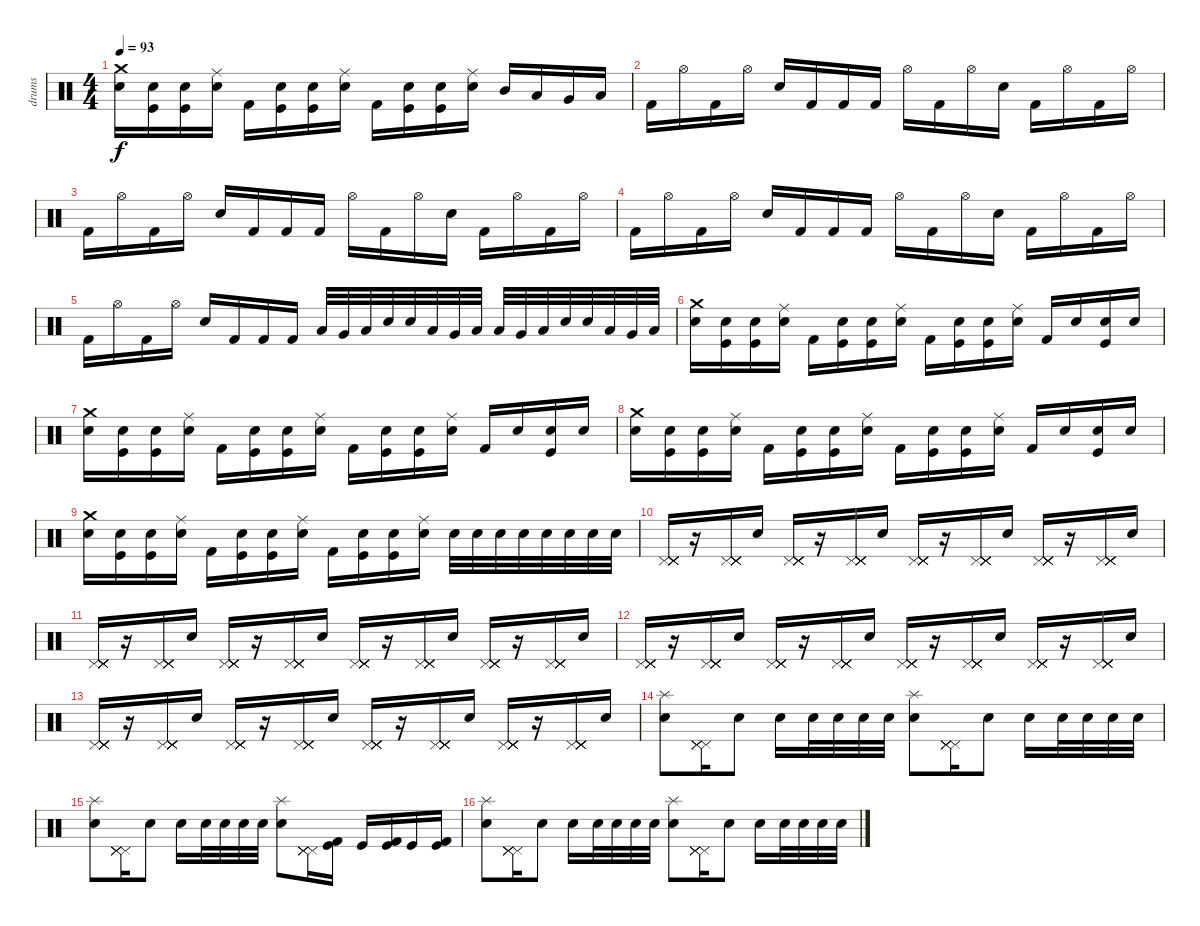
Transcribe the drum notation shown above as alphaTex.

\track ("drums" "drums") {instrument percussion}
\staff {score}
\articulation defaults
\ts (4 4)
\tempo 93
\clef neutral
\ks c
("Crash medium (hit)" "Electric Snare (hit)").16{dy f} ("Kick (hit)" "Snare (hit) 2").16 ("Kick (hit)" "Snare (hit) 2").16 ("Ride (middle)" "Electric Snare (hit)").16 "Kick (hit) 2".16 ("Kick (hit)" "Snare (hit) 2").16 ("Kick (hit)" "Snare (hit) 2").16 ("Ride (middle)" "Electric Snare (hit)").16 "Kick (hit) 2".16 ("Kick (hit)" "Snare (hit) 2").16 ("Kick (hit)" "Snare (hit) 2").16 ("Ride (middle)" "Electric Snare (hit)").16 "Mid Tom (hit)".16 "Low Tom (hit)".16 "Very Low Tom (hit)".16 "Low Floor Tom (hit)".16 |
"Kick (hit) 2".16 "Hi-Hat (open)".16 "Kick (hit) 2".16 "Hi-Hat (open)".16 "Electric Snare (hit)".16 "Kick (hit) 2".16 "Kick (hit) 2".16 "Kick (hit) 2".16 "Hi-Hat (open)".16 "Kick (hit) 2".16 "Hi-Hat (open)".16 "Electric Snare (hit)".16 "Kick (hit) 2".16 "Hi-Hat (open)".16 "Kick (hit) 2".16 "Hi-Hat (open)".16 |
"Kick (hit) 2".16 "Hi-Hat (open)".16 "Kick (hit) 2".16 "Hi-Hat (open)".16 "Electric Snare (hit)".16 "Kick (hit) 2".16 "Kick (hit) 2".16 "Kick (hit) 2".16 "Hi-Hat (open)".16 "Kick (hit) 2".16 "Hi-Hat (open)".16 "Electric Snare (hit)".16 "Kick (hit) 2".16 "Hi-Hat (open)".16 "Kick (hit) 2".16 "Hi-Hat (open)".16 |
"Kick (hit) 2".16 "Hi-Hat (open)".16 "Kick (hit) 2".16 "Hi-Hat (open)".16 "Electric Snare (hit)".16 "Kick (hit) 2".16 "Kick (hit) 2".16 "Kick (hit) 2".16 "Hi-Hat (open)".16 "Kick (hit) 2".16 "Hi-Hat (open)".16 "Electric Snare (hit)".16 "Kick (hit) 2".16 "Hi-Hat (open)".16 "Kick (hit) 2".16 "Hi-Hat (open)".16 |
"Kick (hit) 2".16 "Hi-Hat (open)".16 "Kick (hit) 2".16 "Hi-Hat (open)".16 "Electric Snare (hit)".16 "Kick (hit) 2".16 "Kick (hit) 2".16 "Kick (hit) 2".16 "Low Floor Tom (hit)".32 "Very Low Tom (hit)".32 "Low Tom (hit)".32 "Electric Snare (hit)".32 "Snare (hit) 2".32 "Low Tom (hit)".32 "Very Low Tom (hit)".32 "Low Floor Tom (hit)".32 "Low Floor Tom (hit)".32 "Very Low Tom (hit)".32 "Low Tom (hit)".32 "Electric Snare (hit)".32 "Snare (hit) 2".32 "Low Tom (hit)".32 "Very Low Tom (hit)".32 "Low Floor Tom (hit)".32 |
("Crash medium (hit)" "Electric Snare (hit)").16 ("Kick (hit)" "Snare (hit) 2").16 ("Kick (hit)" "Snare (hit) 2").16 ("Ride (middle)" "Electric Snare (hit)").16 "Kick (hit) 2".16 ("Kick (hit)" "Snare (hit) 2").16 ("Kick (hit)" "Snare (hit) 2").16 ("Ride (middle)" "Electric Snare (hit)").16 "Kick (hit) 2".16 ("Kick (hit)" "Snare (hit) 2").16 ("Kick (hit)" "Snare (hit) 2").16 ("Ride (middle)" "Electric Snare (hit)").16 "Kick (hit) 2".16 "Electric Snare (hit)".16 ("Snare (hit) 2" "Kick (hit)").16 "Electric Snare (hit)".16 |
("Crash medium (hit)" "Electric Snare (hit)").16 ("Kick (hit)" "Snare (hit) 2").16 ("Kick (hit)" "Snare (hit) 2").16 ("Ride (middle)" "Electric Snare (hit)").16 "Kick (hit) 2".16 ("Kick (hit)" "Snare (hit) 2").16 ("Kick (hit)" "Snare (hit) 2").16 ("Ride (middle)" "Electric Snare (hit)").16 "Kick (hit) 2".16 ("Kick (hit)" "Snare (hit) 2").16 ("Kick (hit)" "Snare (hit) 2").16 ("Ride (middle)" "Electric Snare (hit)").16 "Kick (hit) 2".16 "Electric Snare (hit)".16 ("Snare (hit) 2" "Kick (hit)").16 "Electric Snare (hit)".16 |
("Crash medium (hit)" "Electric Snare (hit)").16 ("Kick (hit)" "Snare (hit) 2").16 ("Kick (hit)" "Snare (hit) 2").16 ("Ride (middle)" "Electric Snare (hit)").16 "Kick (hit) 2".16 ("Kick (hit)" "Snare (hit) 2").16 ("Kick (hit)" "Snare (hit) 2").16 ("Ride (middle)" "Electric Snare (hit)").16 "Kick (hit) 2".16 ("Kick (hit)" "Snare (hit) 2").16 ("Kick (hit)" "Snare (hit) 2").16 ("Ride (middle)" "Electric Snare (hit)").16 "Kick (hit) 2".16 "Electric Snare (hit)".16 ("Snare (hit) 2" "Kick (hit)").16 "Electric Snare (hit)".16 |
("Crash medium (hit)" "Electric Snare (hit)").16 ("Kick (hit)" "Snare (hit) 2").16 ("Kick (hit)" "Snare (hit) 2").16 ("Ride (middle)" "Electric Snare (hit)").16 "Kick (hit) 2".16 ("Kick (hit)" "Snare (hit) 2").16 ("Kick (hit)" "Snare (hit) 2").16 ("Ride (middle)" "Electric Snare (hit)").16 "Kick (hit) 2".16 ("Kick (hit)" "Snare (hit) 2").16 ("Kick (hit)" "Snare (hit) 2").16 ("Ride (middle)" "Electric Snare (hit)").16 "Electric Snare (hit)".32 "Electric Snare (hit)".32 "Electric Snare (hit)".32 "Electric Snare (hit)".32 "Electric Snare (hit)".32 "Electric Snare (hit)".32 "Electric Snare (hit)".32 "Electric Snare (hit)".32 |
("Pedal Hi-Hat (hit)" "Pedal Hi-Hat (hit)" "Pedal Hi-Hat (hit)" "Pedal Hi-Hat (hit)" "Pedal Hi-Hat (hit)" "Pedal Hi-Hat (hit)").16 r.16 ("Pedal Hi-Hat (hit)" "Pedal Hi-Hat (hit)" "Pedal Hi-Hat (hit)" "Pedal Hi-Hat (hit)" "Pedal Hi-Hat (hit)" "Pedal Hi-Hat (hit)").16 "Electric Snare (hit)".16 ("Pedal Hi-Hat (hit)" "Pedal Hi-Hat (hit)" "Pedal Hi-Hat (hit)" "Pedal Hi-Hat (hit)" "Pedal Hi-Hat (hit)" "Pedal Hi-Hat (hit)").16 r.16 ("Pedal Hi-Hat (hit)" "Pedal Hi-Hat (hit)" "Pedal Hi-Hat (hit)" "Pedal Hi-Hat (hit)" "Pedal Hi-Hat (hit)" "Pedal Hi-Hat (hit)").16 "Electric Snare (hit)".16 ("Pedal Hi-Hat (hit)" "Pedal Hi-Hat (hit)" "Pedal Hi-Hat (hit)" "Pedal Hi-Hat (hit)" "Pedal Hi-Hat (hit)" "Pedal Hi-Hat (hit)").16 r.16 ("Pedal Hi-Hat (hit)" "Pedal Hi-Hat (hit)" "Pedal Hi-Hat (hit)" "Pedal Hi-Hat (hit)" "Pedal Hi-Hat (hit)" "Pedal Hi-Hat (hit)").16 "Electric Snare (hit)".16 ("Pedal Hi-Hat (hit)" "Pedal Hi-Hat (hit)" "Pedal Hi-Hat (hit)" "Pedal Hi-Hat (hit)" "Pedal Hi-Hat (hit)" "Pedal Hi-Hat (hit)").16 r.16 ("Pedal Hi-Hat (hit)" "Pedal Hi-Hat (hit)" "Pedal Hi-Hat (hit)" "Pedal Hi-Hat (hit)" "Pedal Hi-Hat (hit)" "Pedal Hi-Hat (hit)").16 "Electric Snare (hit)".16 |
("Pedal Hi-Hat (hit)" "Pedal Hi-Hat (hit)" "Pedal Hi-Hat (hit)" "Pedal Hi-Hat (hit)" "Pedal Hi-Hat (hit)" "Pedal Hi-Hat (hit)").16 r.16 ("Pedal Hi-Hat (hit)" "Pedal Hi-Hat (hit)" "Pedal Hi-Hat (hit)" "Pedal Hi-Hat (hit)" "Pedal Hi-Hat (hit)" "Pedal Hi-Hat (hit)").16 "Electric Snare (hit)".16 ("Pedal Hi-Hat (hit)" "Pedal Hi-Hat (hit)" "Pedal Hi-Hat (hit)" "Pedal Hi-Hat (hit)" "Pedal Hi-Hat (hit)" "Pedal Hi-Hat (hit)").16 r.16 ("Pedal Hi-Hat (hit)" "Pedal Hi-Hat (hit)" "Pedal Hi-Hat (hit)" "Pedal Hi-Hat (hit)" "Pedal Hi-Hat (hit)" "Pedal Hi-Hat (hit)").16 "Electric Snare (hit)".16 ("Pedal Hi-Hat (hit)" "Pedal Hi-Hat (hit)" "Pedal Hi-Hat (hit)" "Pedal Hi-Hat (hit)" "Pedal Hi-Hat (hit)" "Pedal Hi-Hat (hit)").16 r.16 ("Pedal Hi-Hat (hit)" "Pedal Hi-Hat (hit)" "Pedal Hi-Hat (hit)" "Pedal Hi-Hat (hit)" "Pedal Hi-Hat (hit)" "Pedal Hi-Hat (hit)").16 "Electric Snare (hit)".16 ("Pedal Hi-Hat (hit)" "Pedal Hi-Hat (hit)" "Pedal Hi-Hat (hit)" "Pedal Hi-Hat (hit)" "Pedal Hi-Hat (hit)" "Pedal Hi-Hat (hit)").16 r.16 ("Pedal Hi-Hat (hit)" "Pedal Hi-Hat (hit)" "Pedal Hi-Hat (hit)" "Pedal Hi-Hat (hit)" "Pedal Hi-Hat (hit)" "Pedal Hi-Hat (hit)").16 "Electric Snare (hit)".16 |
("Pedal Hi-Hat (hit)" "Pedal Hi-Hat (hit)" "Pedal Hi-Hat (hit)" "Pedal Hi-Hat (hit)" "Pedal Hi-Hat (hit)" "Pedal Hi-Hat (hit)").16 r.16 ("Pedal Hi-Hat (hit)" "Pedal Hi-Hat (hit)" "Pedal Hi-Hat (hit)" "Pedal Hi-Hat (hit)" "Pedal Hi-Hat (hit)" "Pedal Hi-Hat (hit)").16 "Electric Snare (hit)".16 ("Pedal Hi-Hat (hit)" "Pedal Hi-Hat (hit)" "Pedal Hi-Hat (hit)" "Pedal Hi-Hat (hit)" "Pedal Hi-Hat (hit)" "Pedal Hi-Hat (hit)").16 r.16 ("Pedal Hi-Hat (hit)" "Pedal Hi-Hat (hit)" "Pedal Hi-Hat (hit)" "Pedal Hi-Hat (hit)" "Pedal Hi-Hat (hit)" "Pedal Hi-Hat (hit)").16 "Electric Snare (hit)".16 ("Pedal Hi-Hat (hit)" "Pedal Hi-Hat (hit)" "Pedal Hi-Hat (hit)" "Pedal Hi-Hat (hit)" "Pedal Hi-Hat (hit)" "Pedal Hi-Hat (hit)").16 r.16 ("Pedal Hi-Hat (hit)" "Pedal Hi-Hat (hit)" "Pedal Hi-Hat (hit)" "Pedal Hi-Hat (hit)" "Pedal Hi-Hat (hit)" "Pedal Hi-Hat (hit)").16 "Electric Snare (hit)".16 ("Pedal Hi-Hat (hit)" "Pedal Hi-Hat (hit)" "Pedal Hi-Hat (hit)" "Pedal Hi-Hat (hit)" "Pedal Hi-Hat (hit)" "Pedal Hi-Hat (hit)").16 r.16 ("Pedal Hi-Hat (hit)" "Pedal Hi-Hat (hit)" "Pedal Hi-Hat (hit)" "Pedal Hi-Hat (hit)" "Pedal Hi-Hat (hit)" "Pedal Hi-Hat (hit)").16 "Electric Snare (hit)".16 |
("Pedal Hi-Hat (hit)" "Pedal Hi-Hat (hit)" "Pedal Hi-Hat (hit)" "Pedal Hi-Hat (hit)" "Pedal Hi-Hat (hit)" "Pedal Hi-Hat (hit)").16 r.16 ("Pedal Hi-Hat (hit)" "Pedal Hi-Hat (hit)" "Pedal Hi-Hat (hit)" "Pedal Hi-Hat (hit)" "Pedal Hi-Hat (hit)" "Pedal Hi-Hat (hit)").16 "Electric Snare (hit)".16 ("Pedal Hi-Hat (hit)" "Pedal Hi-Hat (hit)" "Pedal Hi-Hat (hit)" "Pedal Hi-Hat (hit)" "Pedal Hi-Hat (hit)" "Pedal Hi-Hat (hit)").16 r.16 ("Pedal Hi-Hat (hit)" "Pedal Hi-Hat (hit)" "Pedal Hi-Hat (hit)" "Pedal Hi-Hat (hit)" "Pedal Hi-Hat (hit)" "Pedal Hi-Hat (hit)").16 "Electric Snare (hit)".16 ("Pedal Hi-Hat (hit)" "Pedal Hi-Hat (hit)" "Pedal Hi-Hat (hit)" "Pedal Hi-Hat (hit)" "Pedal Hi-Hat (hit)" "Pedal Hi-Hat (hit)").16 r.16 ("Pedal Hi-Hat (hit)" "Pedal Hi-Hat (hit)" "Pedal Hi-Hat (hit)" "Pedal Hi-Hat (hit)" "Pedal Hi-Hat (hit)" "Pedal Hi-Hat (hit)").16 "Electric Snare (hit)".16 ("Pedal Hi-Hat (hit)" "Pedal Hi-Hat (hit)" "Pedal Hi-Hat (hit)" "Pedal Hi-Hat (hit)" "Pedal Hi-Hat (hit)" "Pedal Hi-Hat (hit)").16 r.16 ("Pedal Hi-Hat (hit)" "Pedal Hi-Hat (hit)" "Pedal Hi-Hat (hit)" "Pedal Hi-Hat (hit)" "Pedal Hi-Hat (hit)" "Pedal Hi-Hat (hit)").16 "Electric Snare (hit)".16 |
("Electric Snare (hit)" "Splash (hit)").8 ("Pedal Hi-Hat (hit)" "Pedal Hi-Hat (hit)" "Pedal Hi-Hat (hit)" "Pedal Hi-Hat (hit)").16 "Electric Snare (hit)".8 "Electric Snare (hit)".16 "Electric Snare (hit)".32 "Electric Snare (hit)".32 "Electric Snare (hit)".32 "Electric Snare (hit)".32 ("Electric Snare (hit)" "Splash (hit)").8 ("Pedal Hi-Hat (hit)" "Pedal Hi-Hat (hit)" "Pedal Hi-Hat (hit)" "Pedal Hi-Hat (hit)").16 "Electric Snare (hit)".8 "Electric Snare (hit)".16 "Electric Snare (hit)".32 "Electric Snare (hit)".32 "Electric Snare (hit)".32 "Electric Snare (hit)".32 |
("Electric Snare (hit)" "Splash (hit)").8 ("Pedal Hi-Hat (hit)" "Pedal Hi-Hat (hit)" "Pedal Hi-Hat (hit)" "Pedal Hi-Hat (hit)").16 "Electric Snare (hit)".8 "Electric Snare (hit)".16 "Electric Snare (hit)".32 "Electric Snare (hit)".32 "Electric Snare (hit)".32 "Electric Snare (hit)".32 ("Electric Snare (hit)" "Splash (hit)").8 ("Pedal Hi-Hat (hit)" "Pedal Hi-Hat (hit)" "Pedal Hi-Hat (hit)" "Pedal Hi-Hat (hit)").16 ("Kick (hit)" "Kick (hit) 2").16 "Kick (hit)".16 ("Kick (hit)" "Kick (hit) 2").16 "Kick (hit)".16 ("Kick (hit)" "Kick (hit) 2").16 |
("Electric Snare (hit)" "Splash (hit)").8 ("Pedal Hi-Hat (hit)" "Pedal Hi-Hat (hit)" "Pedal Hi-Hat (hit)" "Pedal Hi-Hat (hit)").16 "Electric Snare (hit)".8 "Electric Snare (hit)".16 "Electric Snare (hit)".32 "Electric Snare (hit)".32 "Electric Snare (hit)".32 "Electric Snare (hit)".32 ("Electric Snare (hit)" "Splash (hit)").8 ("Pedal Hi-Hat (hit)" "Pedal Hi-Hat (hit)" "Pedal Hi-Hat (hit)" "Pedal Hi-Hat (hit)").16 "Electric Snare (hit)".8 "Electric Snare (hit)".16 "Electric Snare (hit)".32 "Electric Snare (hit)".32 "Electric Snare (hit)".32 "Electric Snare (hit)".32
